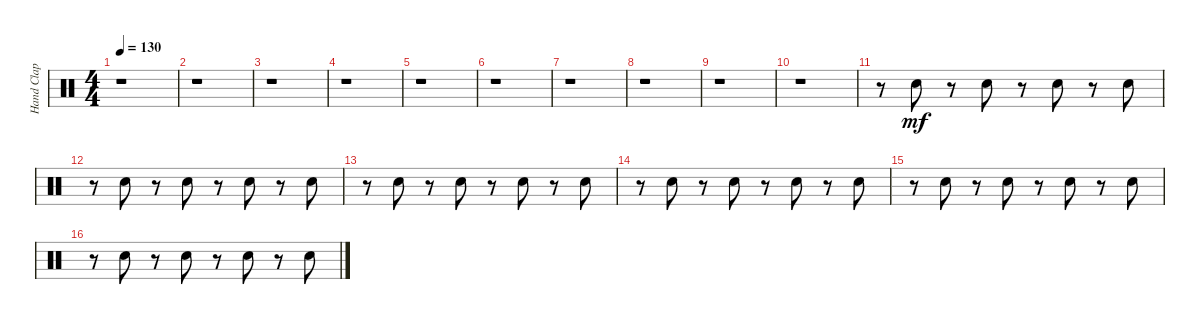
\track ("Hand Clap" "Hand Clap") {instrument percussion}
\staff {score}
\articulation defaults
\ts (4 4)
\tempo 130
\clef neutral
\ks c
r.1{dy mf} |
r.1 |
r.1 |
r.1 |
r.1 |
r.1 |
r.1 |
r.1 |
r.1 |
r.1 |
r.8 "Hand Clap (hit)".8 r.8 "Hand Clap (hit)".8 r.8 "Hand Clap (hit)".8 r.8 "Hand Clap (hit)".8 |
r.8 "Hand Clap (hit)".8 r.8 "Hand Clap (hit)".8 r.8 "Hand Clap (hit)".8 r.8 "Hand Clap (hit)".8 |
r.8 "Hand Clap (hit)".8 r.8 "Hand Clap (hit)".8 r.8 "Hand Clap (hit)".8 r.8 "Hand Clap (hit)".8 |
r.8 "Hand Clap (hit)".8 r.8 "Hand Clap (hit)".8 r.8 "Hand Clap (hit)".8 r.8 "Hand Clap (hit)".8 |
r.8 "Hand Clap (hit)".8 r.8 "Hand Clap (hit)".8 r.8 "Hand Clap (hit)".8 r.8 "Hand Clap (hit)".8 |
r.8 "Hand Clap (hit)".8 r.8 "Hand Clap (hit)".8 r.8 "Hand Clap (hit)".8 r.8 "Hand Clap (hit)".8
